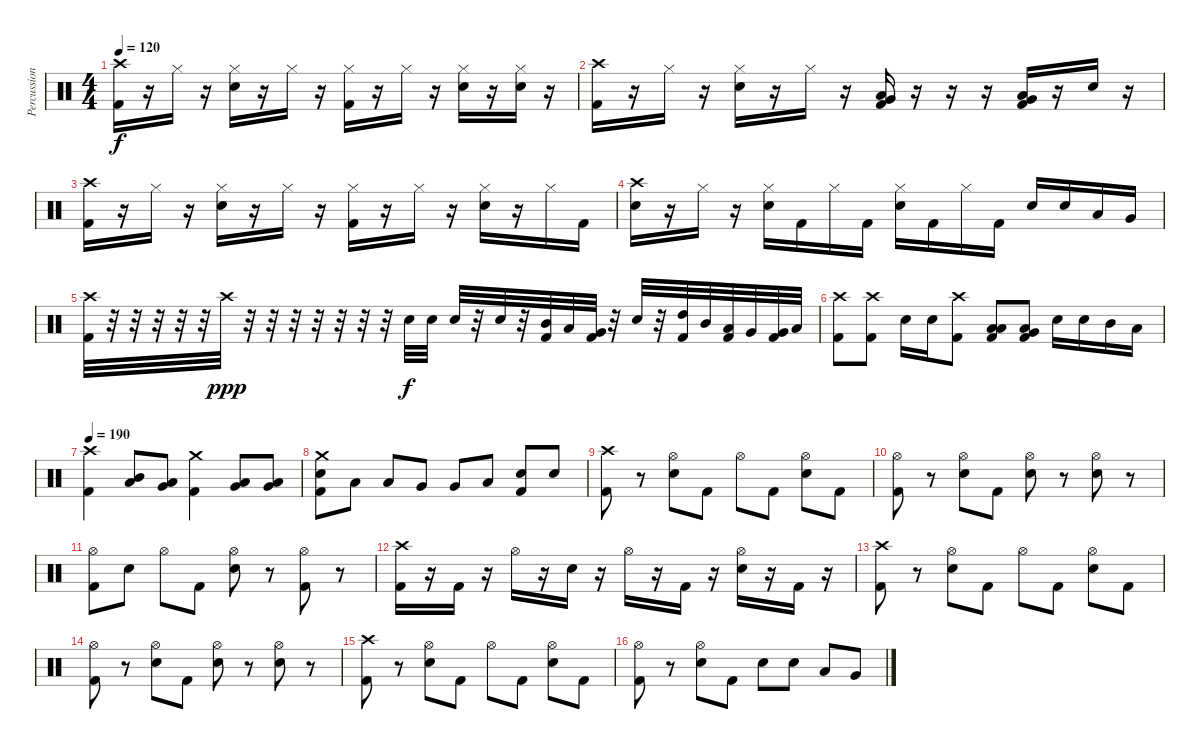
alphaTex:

\track ("Percussion" "Percussion") {instrument percussion}
\staff {score}
\articulation defaults
\ts (4 4)
\tempo 120
\clef neutral
\ks c
("Crash high (hit)" "Kick (hit) 2").16{dy f} r.16 "Hi-Hat (closed)".16 r.16 ("Hi-Hat (closed)" "Snare (hit) 2").16 r.16 "Hi-Hat (closed)".16 r.16 ("Hi-Hat (closed)" "Kick (hit) 2").16 r.16 "Hi-Hat (closed)".16 r.16 ("Hi-Hat (closed)" "Snare (hit) 2").16 r.16 ("Hi-Hat (closed)" "Snare (hit) 2").16 r.16 |
("Crash high (hit)" "Kick (hit) 2").16 r.16 "Hi-Hat (closed)".16 r.16 ("Hi-Hat (closed)" "Snare (hit) 2").16 r.16 "Hi-Hat (closed)".16 r.16 ("Low Tom (hit)" "Very Low Tom (hit)" "Kick (hit) 2").16 r.16 r.16 r.16 ("Very Low Tom (hit)" "Low Floor Tom (hit)" "Kick (hit) 2").16 r.16 "Snare (hit) 2".16 r.16 |
("Crash high (hit)" "Kick (hit) 2").16 r.16 "Hi-Hat (closed)".16 r.16 ("Hi-Hat (closed)" "Snare (hit) 2").16 r.16 "Hi-Hat (closed)".16 r.16 ("Hi-Hat (closed)" "Kick (hit) 2").16 r.16 "Hi-Hat (closed)".16 r.16 ("Hi-Hat (closed)" "Snare (hit) 2").16 r.16 "Hi-Hat (closed)".16 "Kick (hit) 2".16 |
("Crash high (hit)" "Snare (hit) 2").16 r.16 "Hi-Hat (closed)".16 r.16 ("Hi-Hat (closed)" "Snare (hit) 2").16 "Kick (hit) 2".16 "Hi-Hat (closed)".16 "Kick (hit) 2".16 ("Hi-Hat (closed)" "Snare (hit) 2").16 "Kick (hit) 2".16 "Hi-Hat (closed)".16 "Kick (hit) 2".16 "Snare (hit) 2".16 "Snare (hit) 2".16 "Low Tom (hit)".16 "Very Low Tom (hit)".16 |
("Crash high (hit)" "Kick (hit) 2").32 r.32 r.32 r.32 r.32 r.32 "Crash high (hit)".32{dy ppp} r.32 r.32 r.32 r.32 r.32 r.32 r.32 "Snare (hit) 2".32{dy f} "Snare (hit) 2".32 "Snare (hit) 2".32 r.32 "Snare (hit) 2".32 r.32 ("Mid Tom (hit)" "Kick (hit) 2").32 "Low Tom (hit)".32 ("Very Low Tom (hit)" "Kick (hit) 2").32 r.32 "Snare (hit) 2".32 r.32 ("High Tom (hit)" "Kick (hit) 2").32 "Mid Tom (hit)".32 ("Low Tom (hit)" "Kick (hit) 2").32 "Very Low Tom (hit)".32 ("Very Low Tom (hit)" "Kick (hit) 2").32 "Low Floor Tom (hit)".32 |
("Crash high (hit)" "Kick (hit) 2").8 ("Crash high (hit)" "Kick (hit) 2").8 "Snare (hit) 2".16 "Snare (hit) 2".16 ("Crash high (hit)" "Kick (hit) 2").8 ("Low Tom (hit)" "Low Floor Tom (hit)" "Kick (hit) 2").8 ("Very Low Tom (hit)" "Low Floor Tom (hit)" "Kick (hit) 2").8 "Snare (hit) 2".16 "Snare (hit) 2".16 "Mid Tom (hit)".16 "Low Tom (hit)".16 |
\tempo 190
("Crash high (hit)" "Kick (hit) 2").4 ("Mid Tom (hit)" "Low Tom (hit)").8 ("Low Tom (hit)" "Very Low Tom (hit)").8 ("Crash medium (hit)" "Kick (hit) 2").4 ("Low Tom (hit)" "Very Low Tom (hit)").8 ("Very Low Tom (hit)" "Low Floor Tom (hit)").8 |
("Crash medium (hit)" "Snare (hit) 2" "Kick (hit) 2").8 "Low Tom (hit)".8 "Low Tom (hit)".8 "Very Low Tom (hit)".8 "Very Low Tom (hit)".8 "Low Floor Tom (hit)".8 ("Snare (hit) 2" "Kick (hit) 2").8 "Snare (hit) 2".8 |
("Crash high (hit)" "Kick (hit) 2").8 r.8 ("Hi-Hat (open)" "Snare (hit) 2").8 "Kick (hit) 2".8 "Hi-Hat (open)".8 "Kick (hit) 2".8 ("Hi-Hat (open)" "Snare (hit) 2").8 "Kick (hit) 2".8 |
("Hi-Hat (open)" "Kick (hit) 2").8 r.8 ("Hi-Hat (open)" "Snare (hit) 2").8 "Kick (hit) 2".8 ("Hi-Hat (open)" "Snare (hit) 2").8 r.8 ("Hi-Hat (open)" "Snare (hit) 2").8 r.8 |
("Hi-Hat (open)" "Kick (hit) 2").8 "Snare (hit) 2".8 "Hi-Hat (open)".8 "Kick (hit) 2".8 ("Hi-Hat (open)" "Snare (hit) 2").8 r.8 ("Hi-Hat (open)" "Kick (hit) 2").8 r.8 |
("Crash high (hit)" "Kick (hit) 2").16 r.16 "Kick (hit) 2".16 r.16 "Hi-Hat (open)".16 r.16 "Snare (hit) 2".16 r.16 "Hi-Hat (open)".16 r.16 "Kick (hit) 2".16 r.16 ("Hi-Hat (open)" "Snare (hit) 2").16 r.16 "Kick (hit) 2".16 r.16 |
("Crash high (hit)" "Kick (hit) 2").8 r.8 ("Hi-Hat (open)" "Snare (hit) 2").8 "Kick (hit) 2".8 "Hi-Hat (open)".8 "Kick (hit) 2".8 ("Hi-Hat (open)" "Snare (hit) 2").8 "Kick (hit) 2".8 |
("Hi-Hat (open)" "Kick (hit) 2").8 r.8 ("Hi-Hat (open)" "Snare (hit) 2").8 "Kick (hit) 2".8 ("Hi-Hat (open)" "Snare (hit) 2").8 r.8 ("Hi-Hat (open)" "Snare (hit) 2").8 r.8 |
("Crash high (hit)" "Kick (hit) 2").8 r.8 ("Hi-Hat (open)" "Snare (hit) 2").8 "Kick (hit) 2".8 "Hi-Hat (open)".8 "Kick (hit) 2".8 ("Hi-Hat (open)" "Snare (hit) 2").8 "Kick (hit) 2".8 |
("Hi-Hat (open)" "Kick (hit) 2").8 r.8 ("Hi-Hat (open)" "Snare (hit) 2").8 "Kick (hit) 2".8 "Snare (hit) 2".8 "Snare (hit) 2".8 "Low Tom (hit)".8 "Very Low Tom (hit)".8
